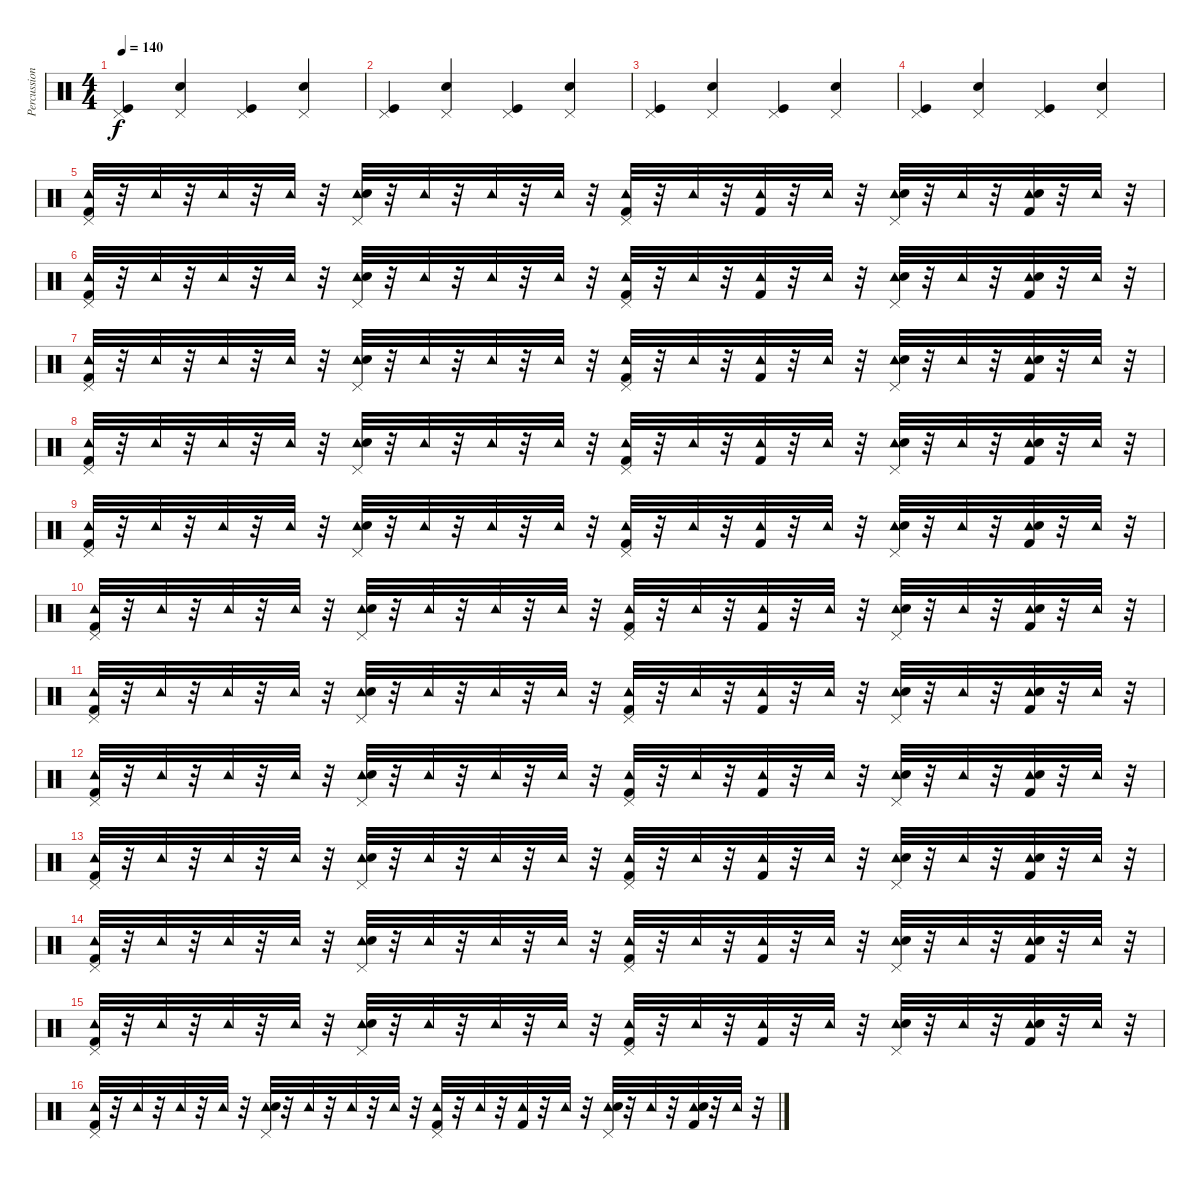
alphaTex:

\track ("Percussion" "Percussion") {instrument percussion}
\staff {score}
\articulation defaults
\ts (4 4)
\tempo 140
\clef neutral
\ks c
("Pedal Hi-Hat (hit)" "Kick (hit)").4{dy f} ("Pedal Hi-Hat (hit)" "Snare (hit) 2").4 ("Pedal Hi-Hat (hit)" "Kick (hit)").4 ("Pedal Hi-Hat (hit)" "Snare (hit) 2").4 |
("Pedal Hi-Hat (hit)" "Kick (hit)").4 ("Pedal Hi-Hat (hit)" "Snare (hit) 2").4 ("Pedal Hi-Hat (hit)" "Kick (hit)").4 ("Pedal Hi-Hat (hit)" "Snare (hit) 2").4 |
("Pedal Hi-Hat (hit)" "Kick (hit)").4 ("Pedal Hi-Hat (hit)" "Snare (hit) 2").4 ("Pedal Hi-Hat (hit)" "Kick (hit)").4 ("Pedal Hi-Hat (hit)" "Snare (hit) 2").4 |
("Pedal Hi-Hat (hit)" "Kick (hit)").4 ("Pedal Hi-Hat (hit)" "Snare (hit) 2").4 ("Pedal Hi-Hat (hit)" "Kick (hit)").4 ("Pedal Hi-Hat (hit)" "Snare (hit) 2").4 |
("Pedal Hi-Hat (hit)" "Tambourine (hit)" "Kick (hit) 2").32 r.32 "Tambourine (hit)".32 r.32 "Tambourine (hit)".32 r.32 "Tambourine (hit)".32 r.32 ("Pedal Hi-Hat (hit)" "Tambourine (hit)" "Snare (hit) 2").32 r.32 "Tambourine (hit)".32 r.32 "Tambourine (hit)".32 r.32 "Tambourine (hit)".32 r.32 ("Pedal Hi-Hat (hit)" "Tambourine (hit)" "Kick (hit) 2").32 r.32 "Tambourine (hit)".32 r.32 ("Tambourine (hit)" "Kick (hit) 2").32 r.32 "Tambourine (hit)".32 r.32 ("Pedal Hi-Hat (hit)" "Tambourine (hit)" "Snare (hit) 2").32 r.32 "Tambourine (hit)".32 r.32 ("Tambourine (hit)" "Snare (hit) 2" "Kick (hit) 2").32 r.32 "Tambourine (hit)".32 r.32 |
("Pedal Hi-Hat (hit)" "Tambourine (hit)" "Kick (hit) 2").32 r.32 "Tambourine (hit)".32 r.32 "Tambourine (hit)".32 r.32 "Tambourine (hit)".32 r.32 ("Pedal Hi-Hat (hit)" "Tambourine (hit)" "Snare (hit) 2").32 r.32 "Tambourine (hit)".32 r.32 "Tambourine (hit)".32 r.32 "Tambourine (hit)".32 r.32 ("Pedal Hi-Hat (hit)" "Tambourine (hit)" "Kick (hit) 2").32 r.32 "Tambourine (hit)".32 r.32 ("Tambourine (hit)" "Kick (hit) 2").32 r.32 "Tambourine (hit)".32 r.32 ("Pedal Hi-Hat (hit)" "Tambourine (hit)" "Snare (hit) 2").32 r.32 "Tambourine (hit)".32 r.32 ("Tambourine (hit)" "Snare (hit) 2" "Kick (hit) 2").32 r.32 "Tambourine (hit)".32 r.32 |
("Pedal Hi-Hat (hit)" "Tambourine (hit)" "Kick (hit) 2").32 r.32 "Tambourine (hit)".32 r.32 "Tambourine (hit)".32 r.32 "Tambourine (hit)".32 r.32 ("Pedal Hi-Hat (hit)" "Tambourine (hit)" "Snare (hit) 2").32 r.32 "Tambourine (hit)".32 r.32 "Tambourine (hit)".32 r.32 "Tambourine (hit)".32 r.32 ("Pedal Hi-Hat (hit)" "Tambourine (hit)" "Kick (hit) 2").32 r.32 "Tambourine (hit)".32 r.32 ("Tambourine (hit)" "Kick (hit) 2").32 r.32 "Tambourine (hit)".32 r.32 ("Pedal Hi-Hat (hit)" "Tambourine (hit)" "Snare (hit) 2").32 r.32 "Tambourine (hit)".32 r.32 ("Tambourine (hit)" "Snare (hit) 2" "Kick (hit) 2").32 r.32 "Tambourine (hit)".32 r.32 |
("Pedal Hi-Hat (hit)" "Tambourine (hit)" "Kick (hit) 2").32 r.32 "Tambourine (hit)".32 r.32 "Tambourine (hit)".32 r.32 "Tambourine (hit)".32 r.32 ("Pedal Hi-Hat (hit)" "Tambourine (hit)" "Snare (hit) 2").32 r.32 "Tambourine (hit)".32 r.32 "Tambourine (hit)".32 r.32 "Tambourine (hit)".32 r.32 ("Pedal Hi-Hat (hit)" "Tambourine (hit)" "Kick (hit) 2").32 r.32 "Tambourine (hit)".32 r.32 ("Tambourine (hit)" "Kick (hit) 2").32 r.32 "Tambourine (hit)".32 r.32 ("Pedal Hi-Hat (hit)" "Tambourine (hit)" "Snare (hit) 2").32 r.32 "Tambourine (hit)".32 r.32 ("Tambourine (hit)" "Snare (hit) 2" "Kick (hit) 2").32 r.32 "Tambourine (hit)".32 r.32 |
("Pedal Hi-Hat (hit)" "Tambourine (hit)" "Kick (hit) 2").32 r.32 "Tambourine (hit)".32 r.32 "Tambourine (hit)".32 r.32 "Tambourine (hit)".32 r.32 ("Pedal Hi-Hat (hit)" "Tambourine (hit)" "Snare (hit) 2").32 r.32 "Tambourine (hit)".32 r.32 "Tambourine (hit)".32 r.32 "Tambourine (hit)".32 r.32 ("Pedal Hi-Hat (hit)" "Tambourine (hit)" "Kick (hit) 2").32 r.32 "Tambourine (hit)".32 r.32 ("Tambourine (hit)" "Kick (hit) 2").32 r.32 "Tambourine (hit)".32 r.32 ("Pedal Hi-Hat (hit)" "Tambourine (hit)" "Snare (hit) 2").32 r.32 "Tambourine (hit)".32 r.32 ("Tambourine (hit)" "Snare (hit) 2" "Kick (hit) 2").32 r.32 "Tambourine (hit)".32 r.32 |
("Pedal Hi-Hat (hit)" "Tambourine (hit)" "Kick (hit) 2").32 r.32 "Tambourine (hit)".32 r.32 "Tambourine (hit)".32 r.32 "Tambourine (hit)".32 r.32 ("Pedal Hi-Hat (hit)" "Tambourine (hit)" "Snare (hit) 2").32 r.32 "Tambourine (hit)".32 r.32 "Tambourine (hit)".32 r.32 "Tambourine (hit)".32 r.32 ("Pedal Hi-Hat (hit)" "Tambourine (hit)" "Kick (hit) 2").32 r.32 "Tambourine (hit)".32 r.32 ("Tambourine (hit)" "Kick (hit) 2").32 r.32 "Tambourine (hit)".32 r.32 ("Pedal Hi-Hat (hit)" "Tambourine (hit)" "Snare (hit) 2").32 r.32 "Tambourine (hit)".32 r.32 ("Tambourine (hit)" "Snare (hit) 2" "Kick (hit) 2").32 r.32 "Tambourine (hit)".32 r.32 |
("Pedal Hi-Hat (hit)" "Tambourine (hit)" "Kick (hit) 2").32 r.32 "Tambourine (hit)".32 r.32 "Tambourine (hit)".32 r.32 "Tambourine (hit)".32 r.32 ("Pedal Hi-Hat (hit)" "Tambourine (hit)" "Snare (hit) 2").32 r.32 "Tambourine (hit)".32 r.32 "Tambourine (hit)".32 r.32 "Tambourine (hit)".32 r.32 ("Pedal Hi-Hat (hit)" "Tambourine (hit)" "Kick (hit) 2").32 r.32 "Tambourine (hit)".32 r.32 ("Tambourine (hit)" "Kick (hit) 2").32 r.32 "Tambourine (hit)".32 r.32 ("Pedal Hi-Hat (hit)" "Tambourine (hit)" "Snare (hit) 2").32 r.32 "Tambourine (hit)".32 r.32 ("Tambourine (hit)" "Snare (hit) 2" "Kick (hit) 2").32 r.32 "Tambourine (hit)".32 r.32 |
("Pedal Hi-Hat (hit)" "Tambourine (hit)" "Kick (hit) 2").32 r.32 "Tambourine (hit)".32 r.32 "Tambourine (hit)".32 r.32 "Tambourine (hit)".32 r.32 ("Pedal Hi-Hat (hit)" "Tambourine (hit)" "Snare (hit) 2").32 r.32 "Tambourine (hit)".32 r.32 "Tambourine (hit)".32 r.32 "Tambourine (hit)".32 r.32 ("Pedal Hi-Hat (hit)" "Tambourine (hit)" "Kick (hit) 2").32 r.32 "Tambourine (hit)".32 r.32 ("Tambourine (hit)" "Kick (hit) 2").32 r.32 "Tambourine (hit)".32 r.32 ("Pedal Hi-Hat (hit)" "Tambourine (hit)" "Snare (hit) 2").32 r.32 "Tambourine (hit)".32 r.32 ("Tambourine (hit)" "Snare (hit) 2" "Kick (hit) 2").32 r.32 "Tambourine (hit)".32 r.32 |
("Pedal Hi-Hat (hit)" "Tambourine (hit)" "Kick (hit) 2").32 r.32 "Tambourine (hit)".32 r.32 "Tambourine (hit)".32 r.32 "Tambourine (hit)".32 r.32 ("Pedal Hi-Hat (hit)" "Tambourine (hit)" "Snare (hit) 2").32 r.32 "Tambourine (hit)".32 r.32 "Tambourine (hit)".32 r.32 "Tambourine (hit)".32 r.32 ("Pedal Hi-Hat (hit)" "Tambourine (hit)" "Kick (hit) 2").32 r.32 "Tambourine (hit)".32 r.32 ("Tambourine (hit)" "Kick (hit) 2").32 r.32 "Tambourine (hit)".32 r.32 ("Pedal Hi-Hat (hit)" "Tambourine (hit)" "Snare (hit) 2").32 r.32 "Tambourine (hit)".32 r.32 ("Tambourine (hit)" "Snare (hit) 2" "Kick (hit) 2").32 r.32 "Tambourine (hit)".32 r.32 |
("Pedal Hi-Hat (hit)" "Tambourine (hit)" "Kick (hit) 2").32 r.32 "Tambourine (hit)".32 r.32 "Tambourine (hit)".32 r.32 "Tambourine (hit)".32 r.32 ("Pedal Hi-Hat (hit)" "Tambourine (hit)" "Snare (hit) 2").32 r.32 "Tambourine (hit)".32 r.32 "Tambourine (hit)".32 r.32 "Tambourine (hit)".32 r.32 ("Pedal Hi-Hat (hit)" "Tambourine (hit)" "Kick (hit) 2").32 r.32 "Tambourine (hit)".32 r.32 ("Tambourine (hit)" "Kick (hit) 2").32 r.32 "Tambourine (hit)".32 r.32 ("Pedal Hi-Hat (hit)" "Tambourine (hit)" "Snare (hit) 2").32 r.32 "Tambourine (hit)".32 r.32 ("Tambourine (hit)" "Snare (hit) 2" "Kick (hit) 2").32 r.32 "Tambourine (hit)".32 r.32 |
("Pedal Hi-Hat (hit)" "Tambourine (hit)" "Kick (hit) 2").32 r.32 "Tambourine (hit)".32 r.32 "Tambourine (hit)".32 r.32 "Tambourine (hit)".32 r.32 ("Pedal Hi-Hat (hit)" "Tambourine (hit)" "Snare (hit) 2").32 r.32 "Tambourine (hit)".32 r.32 "Tambourine (hit)".32 r.32 "Tambourine (hit)".32 r.32 ("Pedal Hi-Hat (hit)" "Tambourine (hit)" "Kick (hit) 2").32 r.32 "Tambourine (hit)".32 r.32 ("Tambourine (hit)" "Kick (hit) 2").32 r.32 "Tambourine (hit)".32 r.32 ("Pedal Hi-Hat (hit)" "Tambourine (hit)" "Snare (hit) 2").32 r.32 "Tambourine (hit)".32 r.32 ("Tambourine (hit)" "Snare (hit) 2" "Kick (hit) 2").32 r.32 "Tambourine (hit)".32 r.32 |
("Pedal Hi-Hat (hit)" "Tambourine (hit)" "Kick (hit) 2").32 r.32 "Tambourine (hit)".32 r.32 "Tambourine (hit)".32 r.32 "Tambourine (hit)".32 r.32 ("Pedal Hi-Hat (hit)" "Tambourine (hit)" "Snare (hit) 2").32 r.32 "Tambourine (hit)".32 r.32 "Tambourine (hit)".32 r.32 "Tambourine (hit)".32 r.32 ("Pedal Hi-Hat (hit)" "Tambourine (hit)" "Kick (hit) 2").32 r.32 "Tambourine (hit)".32 r.32 ("Tambourine (hit)" "Kick (hit) 2").32 r.32 "Tambourine (hit)".32 r.32 ("Pedal Hi-Hat (hit)" "Tambourine (hit)" "Snare (hit) 2").32 r.32 "Tambourine (hit)".32 r.32 ("Tambourine (hit)" "Snare (hit) 2" "Kick (hit) 2").32 r.32 "Tambourine (hit)".32 r.32
